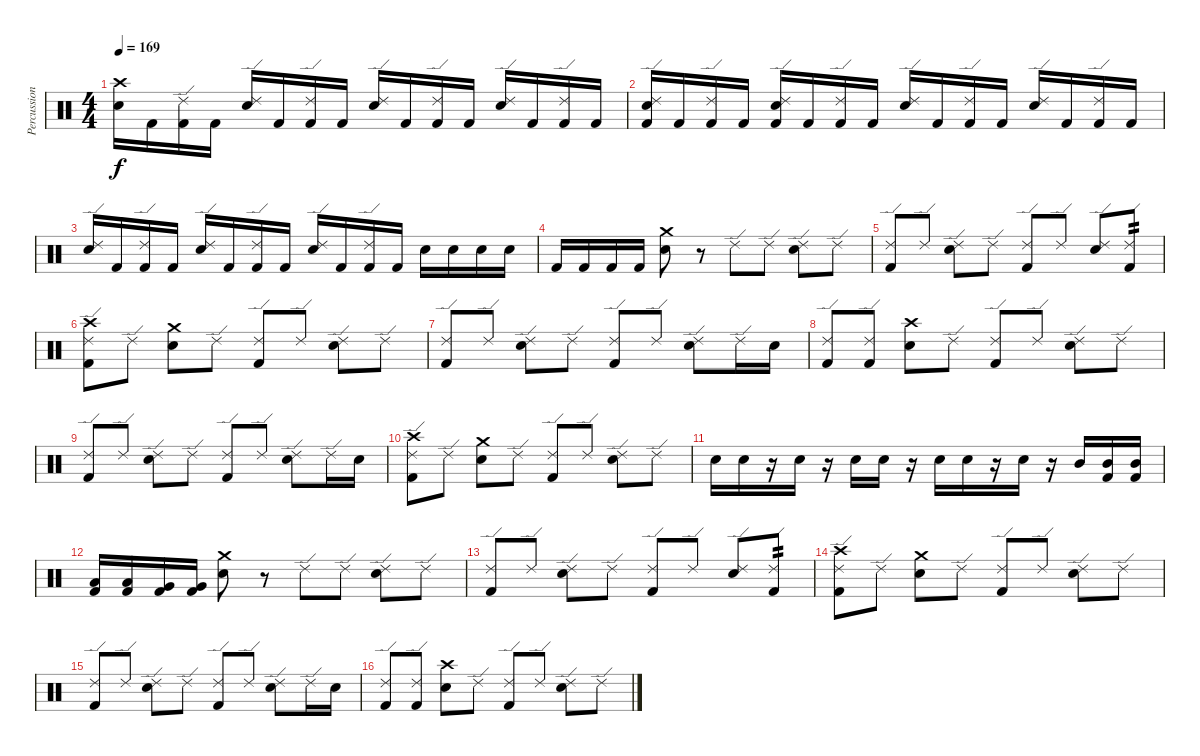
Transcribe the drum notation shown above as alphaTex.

\track ("Percussion" "Percussion") {instrument percussion}
\staff {score}
\articulation defaults
\ts (4 4)
\tempo 169
\clef neutral
\ks c
("Crash high (hit)" "Electric Snare (hit)").16{dy f} "Kick (hit) 2".16 ("Ride (edge) 2" "Kick (hit) 2").16 "Kick (hit) 2".16 ("Ride (edge) 2" "Electric Snare (hit)").16 "Kick (hit) 2".16 ("Ride (edge) 2" "Kick (hit) 2").16 "Kick (hit) 2".16 ("Ride (edge) 2" "Electric Snare (hit)").16 "Kick (hit) 2".16 ("Ride (edge) 2" "Kick (hit) 2").16 "Kick (hit) 2".16 ("Ride (edge) 2" "Electric Snare (hit)").16 "Kick (hit) 2".16 ("Ride (edge) 2" "Kick (hit) 2").16 "Kick (hit) 2".16 |
("Ride (edge) 2" "Electric Snare (hit)" "Kick (hit) 2").16 "Kick (hit) 2".16 ("Ride (edge) 2" "Kick (hit) 2").16 "Kick (hit) 2".16 ("Ride (edge) 2" "Electric Snare (hit)" "Kick (hit) 2").16 "Kick (hit) 2".16 ("Ride (edge) 2" "Kick (hit) 2").16 "Kick (hit) 2".16 ("Ride (edge) 2" "Electric Snare (hit)").16 "Kick (hit) 2".16 ("Ride (edge) 2" "Kick (hit) 2").16 "Kick (hit) 2".16 ("Ride (edge) 2" "Electric Snare (hit)").16 "Kick (hit) 2".16 ("Ride (edge) 2" "Kick (hit) 2").16 "Kick (hit) 2".16 |
("Ride (edge) 2" "Electric Snare (hit)").16 "Kick (hit) 2".16 ("Ride (edge) 2" "Kick (hit) 2").16 "Kick (hit) 2".16 ("Ride (edge) 2" "Electric Snare (hit)").16 "Kick (hit) 2".16 ("Ride (edge) 2" "Kick (hit) 2").16 "Kick (hit) 2".16 ("Ride (edge) 2" "Electric Snare (hit)").16 "Kick (hit) 2".16 ("Ride (edge) 2" "Kick (hit) 2").16 "Kick (hit) 2".16 "Electric Snare (hit)".16 "Electric Snare (hit)".16 "Electric Snare (hit)".16 "Electric Snare (hit)".16 |
"Kick (hit) 2".16 "Kick (hit) 2".16 "Kick (hit) 2".16 "Kick (hit) 2".16 ("Crash medium (hit)" "Electric Snare (hit)").8 r.8 "Ride (edge) 2".8 "Ride (edge) 2".8 ("Ride (edge) 2" "Electric Snare (hit)").8 "Ride (edge) 2".8 |
("Ride (edge) 2" "Kick (hit) 2").8 "Ride (edge) 2".8 ("Ride (edge) 2" "Electric Snare (hit)").8 "Ride (edge) 2".8 ("Ride (edge) 2" "Kick (hit) 2").8 "Ride (edge) 2".8 ("Ride (edge) 2" "Electric Snare (hit)").8 ("Ride (edge) 2" "Kick (hit) 2").8{tp 2} |
("Ride (edge) 2" "Crash high (hit)" "Kick (hit) 2").8 "Ride (edge) 2".8 ("Crash medium (hit)" "Electric Snare (hit)").8 "Ride (edge) 2".8 ("Ride (edge) 2" "Kick (hit) 2").8 "Ride (edge) 2".8 ("Ride (edge) 2" "Electric Snare (hit)").8 "Ride (edge) 2".8 |
("Ride (edge) 2" "Kick (hit) 2").8 "Ride (edge) 2".8 ("Ride (edge) 2" "Electric Snare (hit)").8 "Ride (edge) 2".8 ("Ride (edge) 2" "Kick (hit) 2").8 "Ride (edge) 2".8 ("Ride (edge) 2" "Electric Snare (hit)").8 "Ride (edge) 2".16 "Electric Snare (hit)".16 |
("Ride (edge) 2" "Kick (hit) 2").8 ("Ride (edge) 2" "Kick (hit) 2").8 ("Crash high (hit)" "Electric Snare (hit)").8 "Ride (edge) 2".8 ("Ride (edge) 2" "Kick (hit) 2").8 "Ride (edge) 2".8 ("Ride (edge) 2" "Electric Snare (hit)").8 "Ride (edge) 2".8 |
("Ride (edge) 2" "Kick (hit) 2").8 "Ride (edge) 2".8 ("Ride (edge) 2" "Electric Snare (hit)").8 "Ride (edge) 2".8 ("Ride (edge) 2" "Kick (hit) 2").8 "Ride (edge) 2".8 ("Ride (edge) 2" "Electric Snare (hit)").8 "Ride (edge) 2".16 "Electric Snare (hit)".16 |
("Ride (edge) 2" "Crash high (hit)" "Kick (hit) 2").8 "Ride (edge) 2".8 ("Crash medium (hit)" "Electric Snare (hit)").8 "Ride (edge) 2".8 ("Ride (edge) 2" "Kick (hit) 2").8 "Ride (edge) 2".8 ("Ride (edge) 2" "Electric Snare (hit)").8 "Ride (edge) 2".8 |
"Electric Snare (hit)".16 "Electric Snare (hit)".16 r.16 "Electric Snare (hit)".16 r.16 "Electric Snare (hit)".16 "Electric Snare (hit)".16 r.16 "Electric Snare (hit)".16 "Electric Snare (hit)".16 r.16 "Electric Snare (hit)".16 r.16 "Mid Tom (hit)".16 ("Mid Tom (hit)" "Kick (hit) 2").16 ("Mid Tom (hit)" "Kick (hit) 2").16 |
("Low Tom (hit)" "Kick (hit) 2").16 ("Low Tom (hit)" "Kick (hit) 2").16 ("Very Low Tom (hit)" "Kick (hit) 2").16 ("Very Low Tom (hit)" "Kick (hit) 2").16 ("Crash medium (hit)" "Electric Snare (hit)").8 r.8 "Ride (edge) 2".8 "Ride (edge) 2".8 ("Ride (edge) 2" "Electric Snare (hit)").8 "Ride (edge) 2".8 |
("Ride (edge) 2" "Kick (hit) 2").8 "Ride (edge) 2".8 ("Ride (edge) 2" "Electric Snare (hit)").8 "Ride (edge) 2".8 ("Ride (edge) 2" "Kick (hit) 2").8 "Ride (edge) 2".8 ("Ride (edge) 2" "Electric Snare (hit)").8 ("Ride (edge) 2" "Kick (hit) 2").8{tp 2} |
("Ride (edge) 2" "Crash high (hit)" "Kick (hit) 2").8 "Ride (edge) 2".8 ("Crash medium (hit)" "Electric Snare (hit)").8 "Ride (edge) 2".8 ("Ride (edge) 2" "Kick (hit) 2").8 "Ride (edge) 2".8 ("Ride (edge) 2" "Electric Snare (hit)").8 "Ride (edge) 2".8 |
("Ride (edge) 2" "Kick (hit) 2").8 "Ride (edge) 2".8 ("Ride (edge) 2" "Electric Snare (hit)").8 "Ride (edge) 2".8 ("Ride (edge) 2" "Kick (hit) 2").8 "Ride (edge) 2".8 ("Ride (edge) 2" "Electric Snare (hit)").8 "Ride (edge) 2".16 "Electric Snare (hit)".16 |
("Ride (edge) 2" "Kick (hit) 2").8 ("Ride (edge) 2" "Kick (hit) 2").8 ("Crash high (hit)" "Electric Snare (hit)").8 "Ride (edge) 2".8 ("Ride (edge) 2" "Kick (hit) 2").8 "Ride (edge) 2".8 ("Ride (edge) 2" "Electric Snare (hit)").8 "Ride (edge) 2".8
